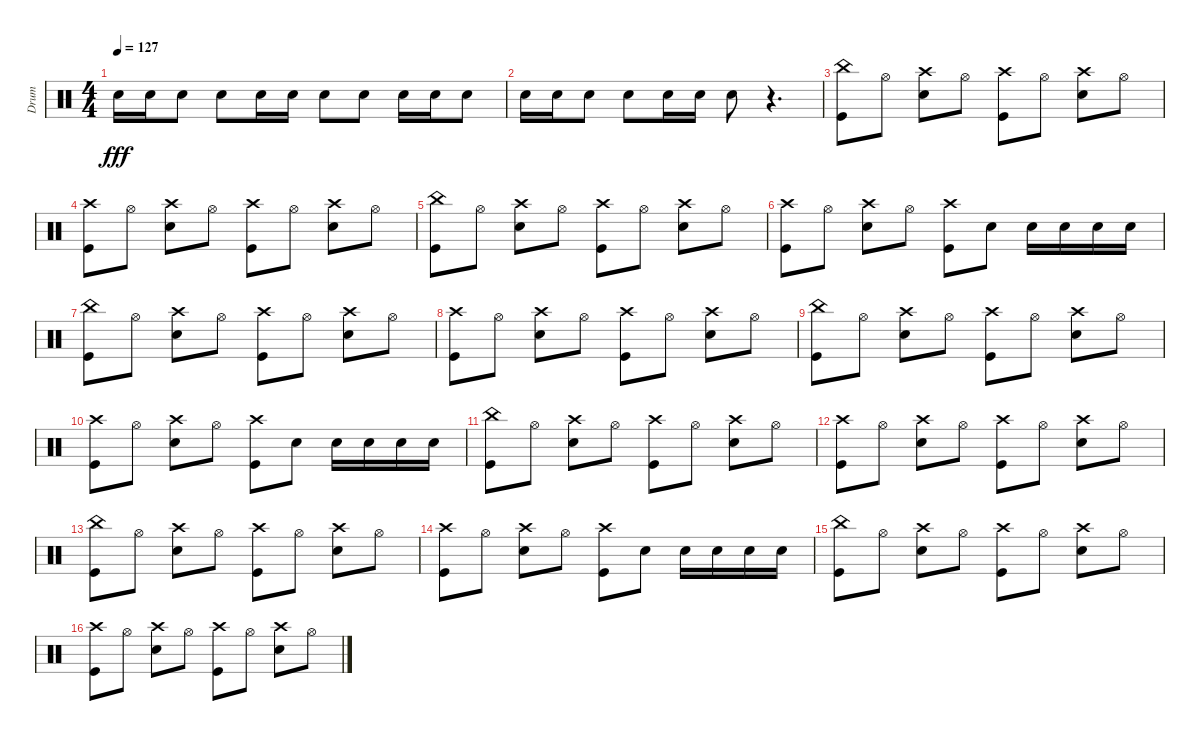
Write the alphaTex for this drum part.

\track ("Drum" "Drum") {instrument percussion}
\staff {score}
\articulation defaults
\ts (4 4)
\tempo 127
\clef neutral
\ks c "Electric Snare (hit)".16{dy fff} "Electric Snare (hit)".16 "Electric Snare (hit)".8 "Electric Snare (hit)".8 "Electric Snare (hit)".16 "Electric Snare (hit)".16 "Electric Snare (hit)".8 "Electric Snare (hit)".8 "Electric Snare (hit)".16 "Electric Snare (hit)".16 "Electric Snare (hit)".8
|
"Electric Snare (hit)".16 "Electric Snare (hit)".16 "Electric Snare (hit)".8 "Electric Snare (hit)".8 "Electric Snare (hit)".16 "Electric Snare (hit)".16 "Electric Snare (hit)".8 r.4{d} |
("Kick (hit)" "China (hit)").8 "Hi-Hat (open)".8 ("Crash high (hit)" "Electric Snare (hit)").8 "Hi-Hat (open)".8 ("Kick (hit)" "Crash high (hit)").8 "Hi-Hat (open)".8 ("Crash high (hit)" "Electric Snare (hit)").8 "Hi-Hat (open)".8 |
("Kick (hit)" "Crash high (hit)").8 "Hi-Hat (open)".8 ("Crash high (hit)" "Electric Snare (hit)").8 "Hi-Hat (open)".8 ("Kick (hit)" "Crash high (hit)").8 "Hi-Hat (open)".8 ("Crash high (hit)" "Electric Snare (hit)").8 "Hi-Hat (open)".8 |
("Kick (hit)" "China (hit)").8 "Hi-Hat (open)".8 ("Crash high (hit)" "Electric Snare (hit)").8 "Hi-Hat (open)".8 ("Kick (hit)" "Crash high (hit)").8 "Hi-Hat (open)".8 ("Crash high (hit)" "Electric Snare (hit)").8 "Hi-Hat (open)".8 |
("Kick (hit)" "Crash high (hit)").8 "Hi-Hat (open)".8 ("Crash high (hit)" "Electric Snare (hit)").8 "Hi-Hat (open)".8 ("Kick (hit)" "Crash high (hit)").8 "Electric Snare (hit)".8 "Electric Snare (hit)".16 "Electric Snare (hit)".16 "Electric Snare (hit)".16 "Electric Snare (hit)".16 |
("Kick (hit)" "China (hit)").8 "Hi-Hat (open)".8 ("Crash high (hit)" "Electric Snare (hit)").8 "Hi-Hat (open)".8 ("Kick (hit)" "Crash high (hit)").8 "Hi-Hat (open)".8 ("Crash high (hit)" "Electric Snare (hit)").8 "Hi-Hat (open)".8 |
("Kick (hit)" "Crash high (hit)").8 "Hi-Hat (open)".8 ("Crash high (hit)" "Electric Snare (hit)").8 "Hi-Hat (open)".8 ("Kick (hit)" "Crash high (hit)").8 "Hi-Hat (open)".8 ("Crash high (hit)" "Electric Snare (hit)").8 "Hi-Hat (open)".8 |
("Kick (hit)" "China (hit)").8 "Hi-Hat (open)".8 ("Crash high (hit)" "Electric Snare (hit)").8 "Hi-Hat (open)".8 ("Kick (hit)" "Crash high (hit)").8 "Hi-Hat (open)".8 ("Crash high (hit)" "Electric Snare (hit)").8 "Hi-Hat (open)".8 |
("Kick (hit)" "Crash high (hit)").8 "Hi-Hat (open)".8 ("Crash high (hit)" "Electric Snare (hit)").8 "Hi-Hat (open)".8 ("Kick (hit)" "Crash high (hit)").8 "Electric Snare (hit)".8 "Electric Snare (hit)".16 "Electric Snare (hit)".16 "Electric Snare (hit)".16 "Electric Snare (hit)".16 |
("Kick (hit)" "China (hit)").8 "Hi-Hat (open)".8 ("Crash high (hit)" "Electric Snare (hit)").8 "Hi-Hat (open)".8 ("Kick (hit)" "Crash high (hit)").8 "Hi-Hat (open)".8 ("Crash high (hit)" "Electric Snare (hit)").8 "Hi-Hat (open)".8 |
("Kick (hit)" "Crash high (hit)").8 "Hi-Hat (open)".8 ("Crash high (hit)" "Electric Snare (hit)").8 "Hi-Hat (open)".8 ("Kick (hit)" "Crash high (hit)").8 "Hi-Hat (open)".8 ("Crash high (hit)" "Electric Snare (hit)").8 "Hi-Hat (open)".8 |
("Kick (hit)" "China (hit)").8 "Hi-Hat (open)".8 ("Crash high (hit)" "Electric Snare (hit)").8 "Hi-Hat (open)".8 ("Kick (hit)" "Crash high (hit)").8 "Hi-Hat (open)".8 ("Crash high (hit)" "Electric Snare (hit)").8 "Hi-Hat (open)".8 |
("Kick (hit)" "Crash high (hit)").8 "Hi-Hat (open)".8 ("Crash high (hit)" "Electric Snare (hit)").8 "Hi-Hat (open)".8 ("Kick (hit)" "Crash high (hit)").8 "Electric Snare (hit)".8 "Electric Snare (hit)".16 "Electric Snare (hit)".16 "Electric Snare (hit)".16 "Electric Snare (hit)".16 |
("Kick (hit)" "China (hit)").8 "Hi-Hat (open)".8 ("Crash high (hit)" "Electric Snare (hit)").8 "Hi-Hat (open)".8 ("Kick (hit)" "Crash high (hit)").8 "Hi-Hat (open)".8 ("Crash high (hit)" "Electric Snare (hit)").8 "Hi-Hat (open)".8 |
("Kick (hit)" "Crash high (hit)").8 "Hi-Hat (open)".8 ("Crash high (hit)" "Electric Snare (hit)").8 "Hi-Hat (open)".8 ("Kick (hit)" "Crash high (hit)").8 "Hi-Hat (open)".8 ("Crash high (hit)" "Electric Snare (hit)").8 "Hi-Hat (open)".8
